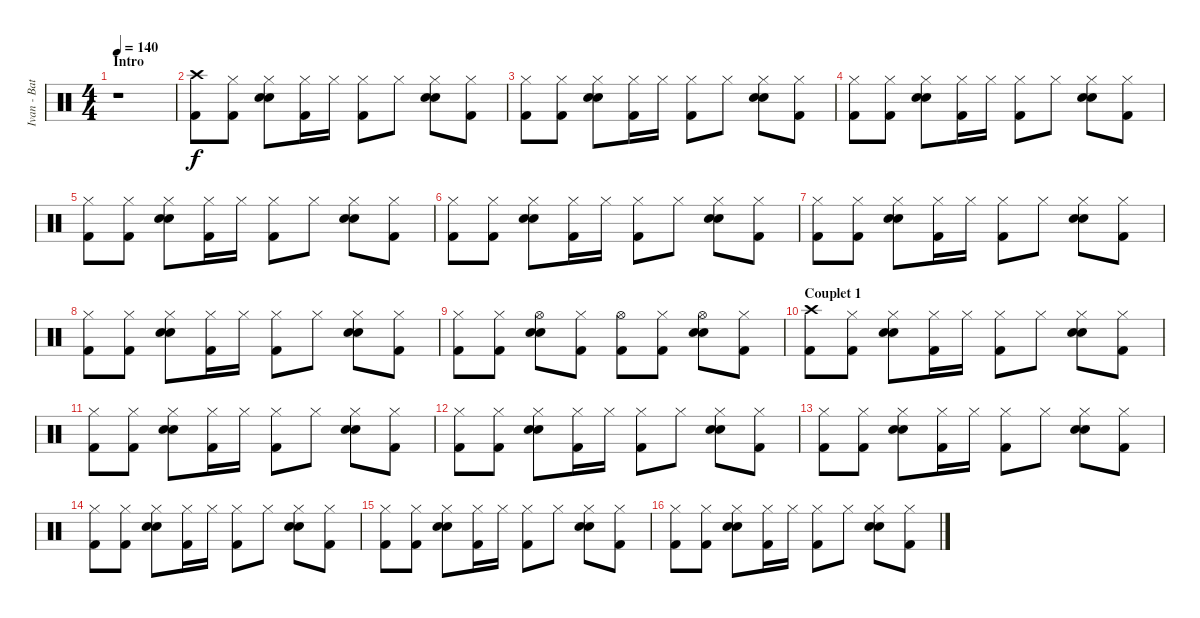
\track ("Ivan - Batterie" "Ivan - Bat") {instrument percussion}
\staff {score}
\articulation defaults
\ts (4 4)
\section ("" "Intro")
\tempo 140
\clef neutral
\ks c
r.1{dy f} |
("Crash high (hit)" "Kick (hit) 2").8 ("Hi-Hat (closed)" "Kick (hit) 2").8 ("Hi-Hat (closed)" "Electric Snare (hit)" "Snare (hit) 2").8 ("Hi-Hat (closed)" "Kick (hit) 2").16 "Hi-Hat (closed)".16 ("Hi-Hat (closed)" "Kick (hit) 2").8 "Hi-Hat (closed)".8 ("Hi-Hat (closed)" "Electric Snare (hit)" "Snare (hit) 2").8 ("Hi-Hat (closed)" "Kick (hit) 2").8 |
("Hi-Hat (closed)" "Kick (hit) 2").8 ("Hi-Hat (closed)" "Kick (hit) 2").8 ("Hi-Hat (closed)" "Electric Snare (hit)" "Snare (hit) 2").8 ("Hi-Hat (closed)" "Kick (hit) 2").16 "Hi-Hat (closed)".16 ("Hi-Hat (closed)" "Kick (hit) 2").8 "Hi-Hat (closed)".8 ("Hi-Hat (closed)" "Electric Snare (hit)" "Snare (hit) 2").8 ("Hi-Hat (closed)" "Kick (hit) 2").8 |
("Hi-Hat (closed)" "Kick (hit) 2").8 ("Hi-Hat (closed)" "Kick (hit) 2").8 ("Hi-Hat (closed)" "Electric Snare (hit)" "Snare (hit) 2").8 ("Hi-Hat (closed)" "Kick (hit) 2").16 "Hi-Hat (closed)".16 ("Hi-Hat (closed)" "Kick (hit) 2").8 "Hi-Hat (closed)".8 ("Hi-Hat (closed)" "Electric Snare (hit)" "Snare (hit) 2").8 ("Hi-Hat (closed)" "Kick (hit) 2").8 |
("Hi-Hat (closed)" "Kick (hit) 2").8 ("Hi-Hat (closed)" "Kick (hit) 2").8 ("Hi-Hat (closed)" "Electric Snare (hit)" "Snare (hit) 2").8 ("Hi-Hat (closed)" "Kick (hit) 2").16 "Hi-Hat (closed)".16 ("Hi-Hat (closed)" "Kick (hit) 2").8 "Hi-Hat (closed)".8 ("Hi-Hat (closed)" "Electric Snare (hit)" "Snare (hit) 2").8 ("Hi-Hat (closed)" "Kick (hit) 2").8 |
("Hi-Hat (closed)" "Kick (hit) 2").8 ("Hi-Hat (closed)" "Kick (hit) 2").8 ("Hi-Hat (closed)" "Electric Snare (hit)" "Snare (hit) 2").8 ("Hi-Hat (closed)" "Kick (hit) 2").16 "Hi-Hat (closed)".16 ("Hi-Hat (closed)" "Kick (hit) 2").8 "Hi-Hat (closed)".8 ("Hi-Hat (closed)" "Electric Snare (hit)" "Snare (hit) 2").8 ("Hi-Hat (closed)" "Kick (hit) 2").8 |
("Hi-Hat (closed)" "Kick (hit) 2").8 ("Hi-Hat (closed)" "Kick (hit) 2").8 ("Hi-Hat (closed)" "Electric Snare (hit)" "Snare (hit) 2").8 ("Hi-Hat (closed)" "Kick (hit) 2").16 "Hi-Hat (closed)".16 ("Hi-Hat (closed)" "Kick (hit) 2").8 "Hi-Hat (closed)".8 ("Hi-Hat (closed)" "Electric Snare (hit)" "Snare (hit) 2").8 ("Hi-Hat (closed)" "Kick (hit) 2").8 |
("Hi-Hat (closed)" "Kick (hit) 2").8 ("Hi-Hat (closed)" "Kick (hit) 2").8 ("Hi-Hat (closed)" "Electric Snare (hit)" "Snare (hit) 2").8 ("Hi-Hat (closed)" "Kick (hit) 2").16 "Hi-Hat (closed)".16 ("Hi-Hat (closed)" "Kick (hit) 2").8 "Hi-Hat (closed)".8 ("Hi-Hat (closed)" "Electric Snare (hit)" "Snare (hit) 2").8 ("Hi-Hat (closed)" "Kick (hit) 2").8 |
("Hi-Hat (closed)" "Kick (hit) 2").8 ("Hi-Hat (closed)" "Kick (hit) 2").8 ("Hi-Hat (open)" "Electric Snare (hit)" "Snare (hit) 2").8 ("Hi-Hat (closed)" "Kick (hit) 2").8 ("Hi-Hat (open)" "Kick (hit) 2").8 ("Hi-Hat (closed)" "Kick (hit) 2").8 ("Hi-Hat (open)" "Electric Snare (hit)" "Snare (hit) 2").8 ("Hi-Hat (closed)" "Kick (hit) 2").8 |
\section ("" "Couplet 1")
("Crash high (hit)" "Kick (hit) 2").8 ("Hi-Hat (closed)" "Kick (hit) 2").8 ("Hi-Hat (closed)" "Electric Snare (hit)" "Snare (hit) 2").8 ("Hi-Hat (closed)" "Kick (hit) 2").16 "Hi-Hat (closed)".16 ("Hi-Hat (closed)" "Kick (hit) 2").8 "Hi-Hat (closed)".8 ("Hi-Hat (closed)" "Electric Snare (hit)" "Snare (hit) 2").8 ("Hi-Hat (closed)" "Kick (hit) 2").8 |
("Hi-Hat (closed)" "Kick (hit) 2").8 ("Hi-Hat (closed)" "Kick (hit) 2").8 ("Hi-Hat (closed)" "Electric Snare (hit)" "Snare (hit) 2").8 ("Hi-Hat (closed)" "Kick (hit) 2").16 "Hi-Hat (closed)".16 ("Hi-Hat (closed)" "Kick (hit) 2").8 "Hi-Hat (closed)".8 ("Hi-Hat (closed)" "Electric Snare (hit)" "Snare (hit) 2").8 ("Hi-Hat (closed)" "Kick (hit) 2").8 |
("Hi-Hat (closed)" "Kick (hit) 2").8 ("Hi-Hat (closed)" "Kick (hit) 2").8 ("Hi-Hat (closed)" "Electric Snare (hit)" "Snare (hit) 2").8 ("Hi-Hat (closed)" "Kick (hit) 2").16 "Hi-Hat (closed)".16 ("Hi-Hat (closed)" "Kick (hit) 2").8 "Hi-Hat (closed)".8 ("Hi-Hat (closed)" "Electric Snare (hit)" "Snare (hit) 2").8 ("Hi-Hat (closed)" "Kick (hit) 2").8 |
("Hi-Hat (closed)" "Kick (hit) 2").8 ("Hi-Hat (closed)" "Kick (hit) 2").8 ("Hi-Hat (closed)" "Electric Snare (hit)" "Snare (hit) 2").8 ("Hi-Hat (closed)" "Kick (hit) 2").16 "Hi-Hat (closed)".16 ("Hi-Hat (closed)" "Kick (hit) 2").8 "Hi-Hat (closed)".8 ("Hi-Hat (closed)" "Electric Snare (hit)" "Snare (hit) 2").8 ("Hi-Hat (closed)" "Kick (hit) 2").8 |
("Hi-Hat (closed)" "Kick (hit) 2").8 ("Hi-Hat (closed)" "Kick (hit) 2").8 ("Hi-Hat (closed)" "Electric Snare (hit)" "Snare (hit) 2").8 ("Hi-Hat (closed)" "Kick (hit) 2").16 "Hi-Hat (closed)".16 ("Hi-Hat (closed)" "Kick (hit) 2").8 "Hi-Hat (closed)".8 ("Hi-Hat (closed)" "Electric Snare (hit)" "Snare (hit) 2").8 ("Hi-Hat (closed)" "Kick (hit) 2").8 |
("Hi-Hat (closed)" "Kick (hit) 2").8 ("Hi-Hat (closed)" "Kick (hit) 2").8 ("Hi-Hat (closed)" "Electric Snare (hit)" "Snare (hit) 2").8 ("Hi-Hat (closed)" "Kick (hit) 2").16 "Hi-Hat (closed)".16 ("Hi-Hat (closed)" "Kick (hit) 2").8 "Hi-Hat (closed)".8 ("Hi-Hat (closed)" "Electric Snare (hit)" "Snare (hit) 2").8 ("Hi-Hat (closed)" "Kick (hit) 2").8 |
("Hi-Hat (closed)" "Kick (hit) 2").8 ("Hi-Hat (closed)" "Kick (hit) 2").8 ("Hi-Hat (closed)" "Electric Snare (hit)" "Snare (hit) 2").8 ("Hi-Hat (closed)" "Kick (hit) 2").16 "Hi-Hat (closed)".16 ("Hi-Hat (closed)" "Kick (hit) 2").8 "Hi-Hat (closed)".8 ("Hi-Hat (closed)" "Electric Snare (hit)" "Snare (hit) 2").8 ("Hi-Hat (closed)" "Kick (hit) 2").8
